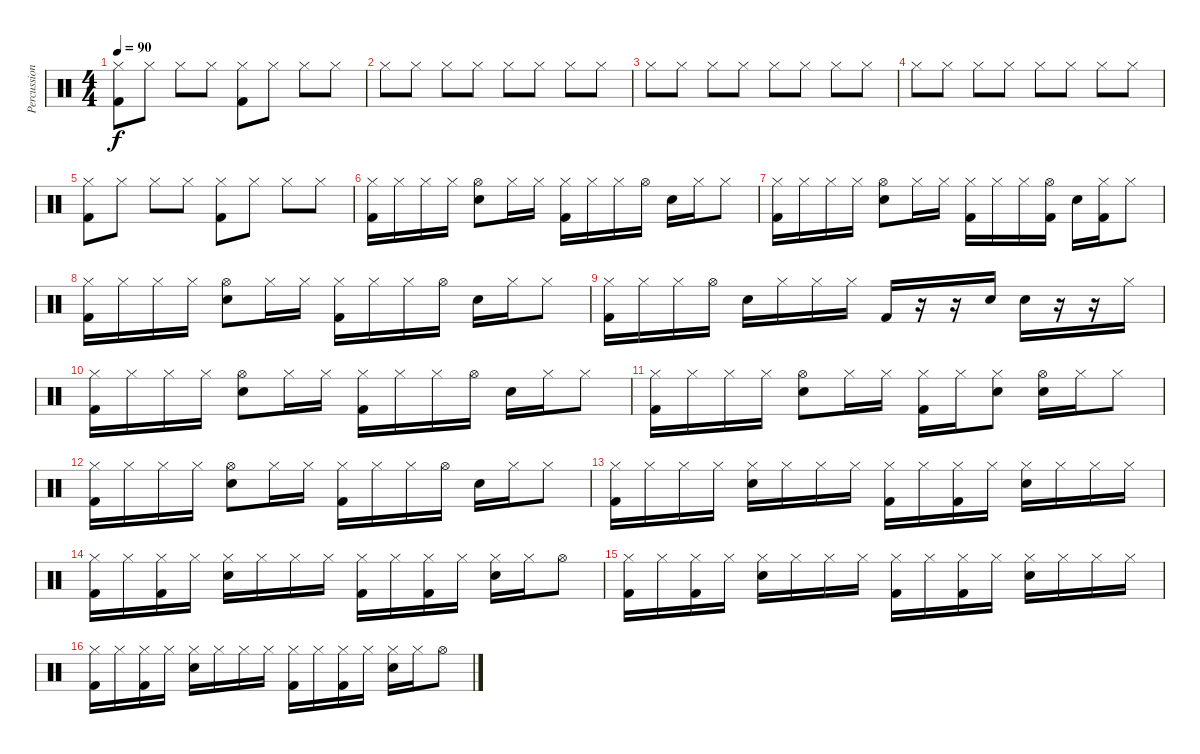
\track ("Percussion" "Percussion") {instrument percussion}
\staff {score}
\articulation defaults
\ts (4 4)
\tempo 90
\clef neutral
\ks c
("Hi-Hat (closed)" "Kick (hit) 2").8{dy f} "Hi-Hat (closed)".8 "Hi-Hat (closed)".8 "Hi-Hat (closed)".8 ("Hi-Hat (closed)" "Kick (hit) 2").8 "Hi-Hat (closed)".8 "Hi-Hat (closed)".8 "Hi-Hat (closed)".8 |
"Hi-Hat (closed)".8 "Hi-Hat (closed)".8 "Hi-Hat (closed)".8 "Hi-Hat (closed)".8 "Hi-Hat (closed)".8 "Hi-Hat (closed)".8 "Hi-Hat (closed)".8 "Hi-Hat (closed)".8 |
"Hi-Hat (closed)".8 "Hi-Hat (closed)".8 "Hi-Hat (closed)".8 "Hi-Hat (closed)".8 "Hi-Hat (closed)".8 "Hi-Hat (closed)".8 "Hi-Hat (closed)".8 "Hi-Hat (closed)".8 |
"Hi-Hat (closed)".8 "Hi-Hat (closed)".8 "Hi-Hat (closed)".8 "Hi-Hat (closed)".8 "Hi-Hat (closed)".8 "Hi-Hat (closed)".8 "Hi-Hat (closed)".8 "Hi-Hat (closed)".8 |
("Hi-Hat (closed)" "Kick (hit) 2").8 "Hi-Hat (closed)".8 "Hi-Hat (closed)".8 "Hi-Hat (closed)".8 ("Hi-Hat (closed)" "Kick (hit) 2").8 "Hi-Hat (closed)".8 "Hi-Hat (closed)".8 "Hi-Hat (closed)".8 |
("Hi-Hat (closed)" "Kick (hit) 2").16 "Hi-Hat (closed)".16 "Hi-Hat (closed)".16 "Hi-Hat (closed)".16 ("Hi-Hat (open)" "Electric Snare (hit)").8 "Hi-Hat (closed)".16 "Hi-Hat (closed)".16 ("Hi-Hat (closed)" "Kick (hit) 2").16 "Hi-Hat (closed)".16 "Hi-Hat (closed)".16 "Hi-Hat (open)".16 "Electric Snare (hit)".16 "Hi-Hat (closed)".16 "Hi-Hat (closed)".8 |
("Hi-Hat (closed)" "Kick (hit) 2").16 "Hi-Hat (closed)".16 "Hi-Hat (closed)".16 "Hi-Hat (closed)".16 ("Hi-Hat (open)" "Electric Snare (hit)").8 "Hi-Hat (closed)".16 "Hi-Hat (closed)".16 ("Hi-Hat (closed)" "Kick (hit) 2").16 "Hi-Hat (closed)".16 "Hi-Hat (closed)".16 ("Hi-Hat (open)" "Kick (hit) 2").16 "Electric Snare (hit)".16 ("Hi-Hat (closed)" "Kick (hit) 2").16 "Hi-Hat (closed)".8 |
("Hi-Hat (closed)" "Kick (hit) 2").16 "Hi-Hat (closed)".16 "Hi-Hat (closed)".16 "Hi-Hat (closed)".16 ("Hi-Hat (open)" "Electric Snare (hit)").8 "Hi-Hat (closed)".16 "Hi-Hat (closed)".16 ("Hi-Hat (closed)" "Kick (hit) 2").16 "Hi-Hat (closed)".16 "Hi-Hat (closed)".16 "Hi-Hat (open)".16 "Electric Snare (hit)".16 "Hi-Hat (closed)".16 "Hi-Hat (closed)".8 |
("Hi-Hat (closed)" "Kick (hit) 2").16 "Hi-Hat (closed)".16 "Hi-Hat (closed)".16 "Hi-Hat (open)".16 "Electric Snare (hit)".16 "Hi-Hat (closed)".16 "Hi-Hat (closed)".16 "Hi-Hat (closed)".16 "Kick (hit) 2".16 r.16 r.16 "Electric Snare (hit)".16 "Electric Snare (hit)".16 r.16 r.16 "Hi-Hat (closed)".16 |
("Hi-Hat (closed)" "Kick (hit) 2").16 "Hi-Hat (closed)".16 "Hi-Hat (closed)".16 "Hi-Hat (closed)".16 ("Hi-Hat (open)" "Electric Snare (hit)").8 "Hi-Hat (closed)".16 "Hi-Hat (closed)".16 ("Hi-Hat (closed)" "Kick (hit) 2").16 "Hi-Hat (closed)".16 "Hi-Hat (closed)".16 "Hi-Hat (open)".16 "Electric Snare (hit)".16 "Hi-Hat (closed)".16 "Hi-Hat (closed)".8 |
("Hi-Hat (closed)" "Kick (hit) 2").16 "Hi-Hat (closed)".16 "Hi-Hat (closed)".16 "Hi-Hat (closed)".16 ("Hi-Hat (open)" "Electric Snare (hit)").8 "Hi-Hat (closed)".16 "Hi-Hat (closed)".16 ("Hi-Hat (closed)" "Kick (hit) 2").16 "Hi-Hat (closed)".16 ("Hi-Hat (closed)" "Electric Snare (hit)").8 ("Hi-Hat (open)" "Electric Snare (hit)").16 "Hi-Hat (closed)".16 "Hi-Hat (closed)".8 |
("Hi-Hat (closed)" "Kick (hit) 2").16 "Hi-Hat (closed)".16 "Hi-Hat (closed)".16 "Hi-Hat (closed)".16 ("Hi-Hat (open)" "Electric Snare (hit)").8 "Hi-Hat (closed)".16 "Hi-Hat (closed)".16 ("Hi-Hat (closed)" "Kick (hit) 2").16 "Hi-Hat (closed)".16 "Hi-Hat (closed)".16 "Hi-Hat (open)".16 "Electric Snare (hit)".16 "Hi-Hat (closed)".16 "Hi-Hat (closed)".8 |
("Hi-Hat (closed)" "Kick (hit) 2").16 "Hi-Hat (closed)".16 "Hi-Hat (closed)".16 "Hi-Hat (closed)".16 ("Hi-Hat (closed)" "Electric Snare (hit)").16 "Hi-Hat (closed)".16 "Hi-Hat (closed)".16 "Hi-Hat (closed)".16 ("Hi-Hat (closed)" "Kick (hit) 2").16 "Hi-Hat (closed)".16 ("Hi-Hat (closed)" "Kick (hit) 2").16 "Hi-Hat (closed)".16 ("Hi-Hat (closed)" "Electric Snare (hit)").16 "Hi-Hat (closed)".16 "Hi-Hat (closed)".16 "Hi-Hat (closed)".16 |
("Hi-Hat (closed)" "Kick (hit) 2").16 "Hi-Hat (closed)".16 ("Hi-Hat (closed)" "Kick (hit) 2").16 "Hi-Hat (closed)".16 ("Hi-Hat (closed)" "Electric Snare (hit)").16 "Hi-Hat (closed)".16 "Hi-Hat (closed)".16 "Hi-Hat (closed)".16 ("Hi-Hat (closed)" "Kick (hit) 2").16 "Hi-Hat (closed)".16 ("Hi-Hat (closed)" "Kick (hit) 2").16 "Hi-Hat (closed)".16 ("Hi-Hat (closed)" "Electric Snare (hit)").16 "Hi-Hat (closed)".16 "Hi-Hat (open)".8 |
("Hi-Hat (closed)" "Kick (hit) 2").16 "Hi-Hat (closed)".16 ("Hi-Hat (closed)" "Kick (hit) 2").16 "Hi-Hat (closed)".16 ("Hi-Hat (closed)" "Electric Snare (hit)").16 "Hi-Hat (closed)".16 "Hi-Hat (closed)".16 "Hi-Hat (closed)".16 ("Hi-Hat (closed)" "Kick (hit) 2").16 "Hi-Hat (closed)".16 ("Hi-Hat (closed)" "Kick (hit) 2").16 "Hi-Hat (closed)".16 ("Hi-Hat (closed)" "Electric Snare (hit)").16 "Hi-Hat (closed)".16 "Hi-Hat (closed)".16 "Hi-Hat (closed)".16 |
("Hi-Hat (closed)" "Kick (hit) 2").16 "Hi-Hat (closed)".16 ("Hi-Hat (closed)" "Kick (hit) 2").16 "Hi-Hat (closed)".16 ("Hi-Hat (closed)" "Electric Snare (hit)").16 "Hi-Hat (closed)".16 "Hi-Hat (closed)".16 "Hi-Hat (closed)".16 ("Hi-Hat (closed)" "Kick (hit) 2").16 "Hi-Hat (closed)".16 ("Hi-Hat (closed)" "Kick (hit) 2").16 "Hi-Hat (closed)".16 ("Hi-Hat (closed)" "Electric Snare (hit)").16 "Hi-Hat (closed)".16 "Hi-Hat (open)".8
